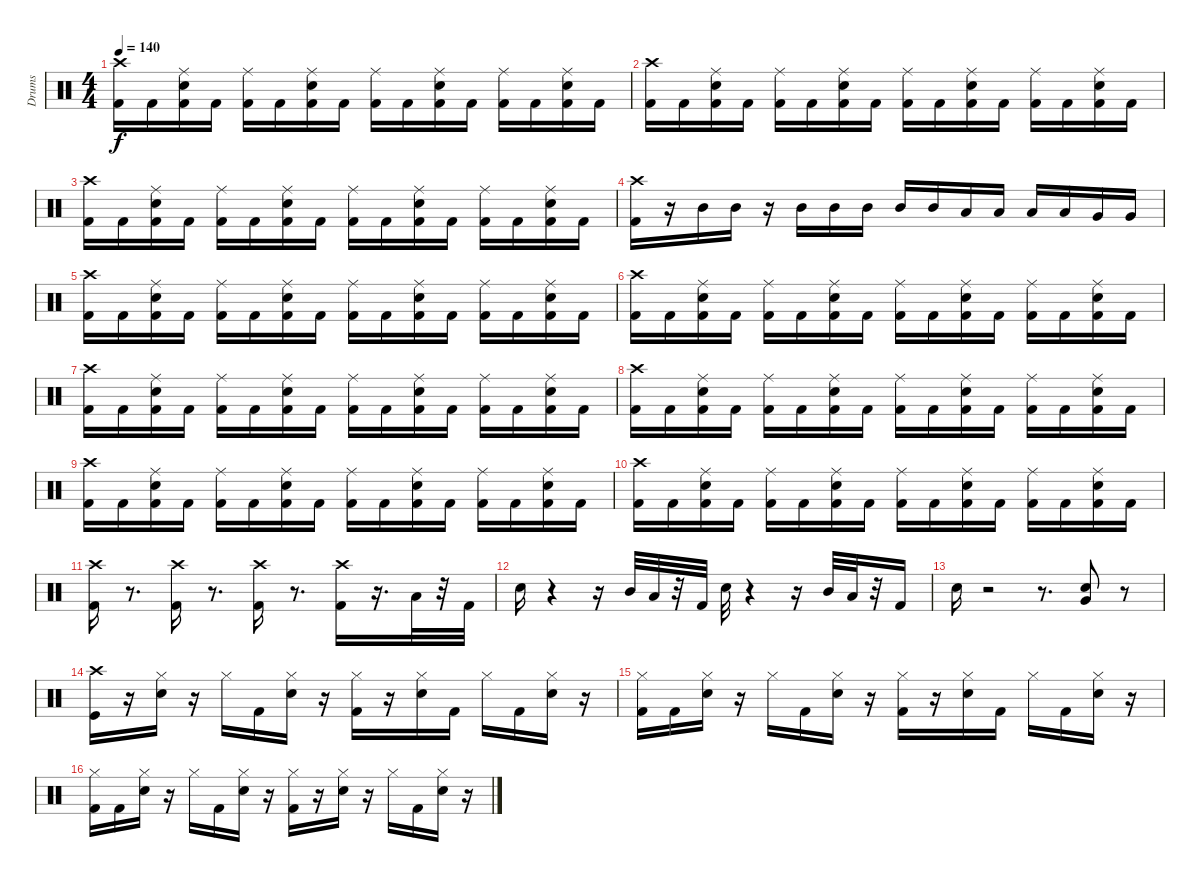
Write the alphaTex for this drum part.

\track ("Drums" "Drums") {instrument percussion}
\staff {score}
\articulation defaults
\ts (4 4)
\tempo 140
\clef neutral
\ks c
("Kick (hit) 2" "Crash high (hit)").16{dy f} "Kick (hit) 2".16 ("Kick (hit) 2" "Snare (hit) 2" "Ride (middle)").16 "Kick (hit) 2".16 ("Kick (hit) 2" "Ride (middle)").16 "Kick (hit) 2".16 ("Kick (hit) 2" "Snare (hit) 2" "Ride (middle)").16 "Kick (hit) 2".16 ("Kick (hit) 2" "Ride (middle)").16 "Kick (hit) 2".16 ("Kick (hit) 2" "Snare (hit) 2" "Ride (middle)").16 "Kick (hit) 2".16 ("Kick (hit) 2" "Ride (middle)").16 "Kick (hit) 2".16 ("Kick (hit) 2" "Snare (hit) 2" "Ride (middle)").16 "Kick (hit) 2".16 |
("Kick (hit) 2" "Crash high (hit)").16 "Kick (hit) 2".16 ("Kick (hit) 2" "Snare (hit) 2" "Ride (middle)").16 "Kick (hit) 2".16 ("Kick (hit) 2" "Ride (middle)").16 "Kick (hit) 2".16 ("Kick (hit) 2" "Snare (hit) 2" "Ride (middle)").16 "Kick (hit) 2".16 ("Kick (hit) 2" "Ride (middle)").16 "Kick (hit) 2".16 ("Kick (hit) 2" "Snare (hit) 2" "Ride (middle)").16 "Kick (hit) 2".16 ("Kick (hit) 2" "Ride (middle)").16 "Kick (hit) 2".16 ("Kick (hit) 2" "Snare (hit) 2" "Ride (middle)").16 "Kick (hit) 2".16 |
("Kick (hit) 2" "Crash high (hit)").16 "Kick (hit) 2".16 ("Kick (hit) 2" "Snare (hit) 2" "Ride (middle)").16 "Kick (hit) 2".16 ("Kick (hit) 2" "Ride (middle)").16 "Kick (hit) 2".16 ("Kick (hit) 2" "Snare (hit) 2" "Ride (middle)").16 "Kick (hit) 2".16 ("Kick (hit) 2" "Ride (middle)").16 "Kick (hit) 2".16 ("Kick (hit) 2" "Snare (hit) 2" "Ride (middle)").16 "Kick (hit) 2".16 ("Kick (hit) 2" "Ride (middle)").16 "Kick (hit) 2".16 ("Kick (hit) 2" "Snare (hit) 2" "Ride (middle)").16 "Kick (hit) 2".16 |
("Kick (hit) 2" "Crash high (hit)").16 r.16 "Mid Tom (hit)".16 "Mid Tom (hit)".16 r.16 "Mid Tom (hit)".16 "Mid Tom (hit)".16 "Mid Tom (hit)".16 "Mid Tom (hit)".16 "Mid Tom (hit)".16 "Low Tom (hit)".16 "Low Tom (hit)".16 "Low Tom (hit)".16 "Low Tom (hit)".16 "Very Low Tom (hit)".16 "Very Low Tom (hit)".16 |
("Kick (hit) 2" "Crash high (hit)").16 "Kick (hit) 2".16 ("Kick (hit) 2" "Snare (hit) 2" "Ride (middle)").16 "Kick (hit) 2".16 ("Kick (hit) 2" "Ride (middle)").16 "Kick (hit) 2".16 ("Kick (hit) 2" "Snare (hit) 2" "Ride (middle)").16 "Kick (hit) 2".16 ("Kick (hit) 2" "Ride (middle)").16 "Kick (hit) 2".16 ("Kick (hit) 2" "Snare (hit) 2" "Ride (middle)").16 "Kick (hit) 2".16 ("Kick (hit) 2" "Ride (middle)").16 "Kick (hit) 2".16 ("Kick (hit) 2" "Snare (hit) 2" "Ride (middle)").16 "Kick (hit) 2".16 |
("Kick (hit) 2" "Crash high (hit)").16 "Kick (hit) 2".16 ("Kick (hit) 2" "Snare (hit) 2" "Ride (middle)").16 "Kick (hit) 2".16 ("Kick (hit) 2" "Ride (middle)").16 "Kick (hit) 2".16 ("Kick (hit) 2" "Snare (hit) 2" "Ride (middle)").16 "Kick (hit) 2".16 ("Kick (hit) 2" "Ride (middle)").16 "Kick (hit) 2".16 ("Kick (hit) 2" "Snare (hit) 2" "Ride (middle)").16 "Kick (hit) 2".16 ("Kick (hit) 2" "Ride (middle)").16 "Kick (hit) 2".16 ("Kick (hit) 2" "Snare (hit) 2" "Ride (middle)").16 "Kick (hit) 2".16 |
("Kick (hit) 2" "Crash high (hit)").16 "Kick (hit) 2".16 ("Kick (hit) 2" "Snare (hit) 2" "Ride (middle)").16 "Kick (hit) 2".16 ("Kick (hit) 2" "Ride (middle)").16 "Kick (hit) 2".16 ("Kick (hit) 2" "Snare (hit) 2" "Ride (middle)").16 "Kick (hit) 2".16 ("Kick (hit) 2" "Ride (middle)").16 "Kick (hit) 2".16 ("Kick (hit) 2" "Snare (hit) 2" "Ride (middle)").16 "Kick (hit) 2".16 ("Kick (hit) 2" "Ride (middle)").16 "Kick (hit) 2".16 ("Kick (hit) 2" "Snare (hit) 2" "Ride (middle)").16 "Kick (hit) 2".16 |
("Kick (hit) 2" "Crash high (hit)").16 "Kick (hit) 2".16 ("Kick (hit) 2" "Snare (hit) 2" "Ride (middle)").16 "Kick (hit) 2".16 ("Kick (hit) 2" "Ride (middle)").16 "Kick (hit) 2".16 ("Kick (hit) 2" "Snare (hit) 2" "Ride (middle)").16 "Kick (hit) 2".16 ("Kick (hit) 2" "Ride (middle)").16 "Kick (hit) 2".16 ("Kick (hit) 2" "Snare (hit) 2" "Ride (middle)").16 "Kick (hit) 2".16 ("Kick (hit) 2" "Ride (middle)").16 "Kick (hit) 2".16 ("Kick (hit) 2" "Snare (hit) 2" "Ride (middle)").16 "Kick (hit) 2".16 |
("Kick (hit) 2" "Crash high (hit)").16 "Kick (hit) 2".16 ("Kick (hit) 2" "Snare (hit) 2" "Ride (middle)").16 "Kick (hit) 2".16 ("Kick (hit) 2" "Ride (middle)").16 "Kick (hit) 2".16 ("Kick (hit) 2" "Snare (hit) 2" "Ride (middle)").16 "Kick (hit) 2".16 ("Kick (hit) 2" "Ride (middle)").16 "Kick (hit) 2".16 ("Kick (hit) 2" "Snare (hit) 2" "Ride (middle)").16 "Kick (hit) 2".16 ("Kick (hit) 2" "Ride (middle)").16 "Kick (hit) 2".16 ("Kick (hit) 2" "Snare (hit) 2" "Ride (middle)").16 "Kick (hit) 2".16 |
("Kick (hit) 2" "Crash high (hit)").16 "Kick (hit) 2".16 ("Kick (hit) 2" "Snare (hit) 2" "Ride (middle)").16 "Kick (hit) 2".16 ("Kick (hit) 2" "Ride (middle)").16 "Kick (hit) 2".16 ("Kick (hit) 2" "Snare (hit) 2" "Ride (middle)").16 "Kick (hit) 2".16 ("Kick (hit) 2" "Ride (middle)").16 "Kick (hit) 2".16 ("Kick (hit) 2" "Snare (hit) 2" "Ride (middle)").16 "Kick (hit) 2".16 ("Kick (hit) 2" "Ride (middle)").16 "Kick (hit) 2".16 ("Kick (hit) 2" "Snare (hit) 2" "Ride (middle)").16 "Kick (hit) 2".16 |
("Kick (hit) 2" "Crash high (hit)").16 r.8{d} ("Kick (hit) 2" "Crash high (hit)").16 r.8{d} ("Kick (hit) 2" "Crash high (hit)").16 r.8{d} ("Kick (hit) 2" "Crash high (hit)").16 r.16{d} "Low Tom (hit)".32 r.32 "Kick (hit) 2".32 |
"Snare (hit) 2".16 r.4 r.16 "Mid Tom (hit)".32 "Low Tom (hit)".32 r.32 "Kick (hit) 2".32 "Snare (hit) 2".32 r.4 r.16 "Mid Tom (hit)".32 "Low Tom (hit)".32 r.32 "Kick (hit) 2".16 |
"Snare (hit) 2".16 r.2 r.8{d} ("Snare (hit) 2" "Very Low Tom (hit)").8 r.8 |
("Kick (hit)" "Crash high (hit)").16 r.16 ("Snare (hit) 2" "Hi-Hat (closed)").16 r.16 "Hi-Hat (closed)".16 "Kick (hit) 2".16 ("Snare (hit) 2" "Hi-Hat (closed)").16 r.16 ("Kick (hit) 2" "Hi-Hat (closed)").16 r.16 ("Snare (hit) 2" "Hi-Hat (closed)").16 "Kick (hit) 2".16 "Hi-Hat (closed)".16 "Kick (hit) 2".16 ("Snare (hit) 2" "Hi-Hat (closed)").16 r.16 |
("Kick (hit) 2" "Hi-Hat (closed)").16 "Kick (hit) 2".16 ("Snare (hit) 2" "Hi-Hat (closed)").16 r.16 "Hi-Hat (closed)".16 "Kick (hit) 2".16 ("Snare (hit) 2" "Hi-Hat (closed)").16 r.16 ("Kick (hit) 2" "Hi-Hat (closed)").16 r.16 ("Snare (hit) 2" "Hi-Hat (closed)").16 "Kick (hit) 2".16 "Hi-Hat (closed)".16 "Kick (hit) 2".16 ("Snare (hit) 2" "Hi-Hat (closed)").16 r.16 |
("Kick (hit) 2" "Hi-Hat (closed)").16 "Kick (hit) 2".16 ("Snare (hit) 2" "Hi-Hat (closed)").16 r.16 "Hi-Hat (closed)".16 "Kick (hit) 2".16 ("Snare (hit) 2" "Hi-Hat (closed)").16 r.16 ("Kick (hit) 2" "Hi-Hat (closed)").16 r.16 ("Snare (hit) 2" "Hi-Hat (closed)").16 r.16 "Hi-Hat (closed)".16 "Kick (hit) 2".16 ("Snare (hit) 2" "Hi-Hat (closed)").16 r.16
